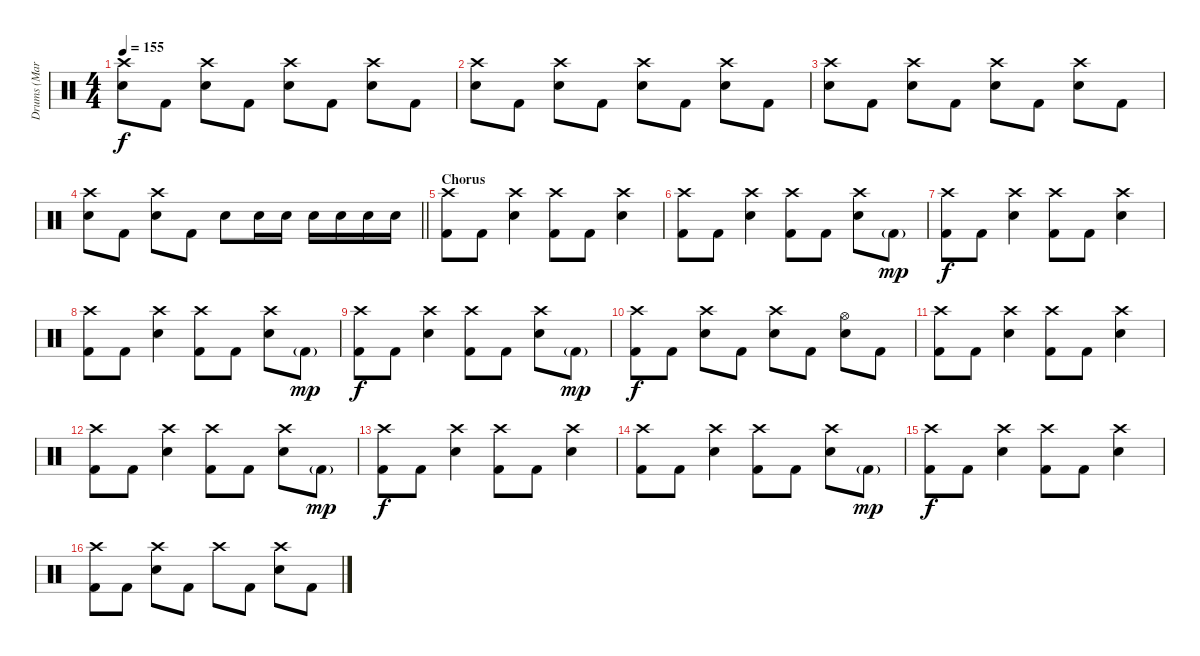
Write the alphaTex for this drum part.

\track ("Drums (Mark)" "Drums (Mar") {instrument percussion}
\staff {score}
\articulation defaults
\ts (4 4)
\tempo 155
\clef neutral
\ks c
("Crash high (hit)" "Snare (hit) 2").8{dy f} "Kick (hit) 2".8 ("Crash high (hit)" "Snare (hit) 2").8 "Kick (hit) 2".8 ("Crash high (hit)" "Snare (hit) 2").8 "Kick (hit) 2".8 ("Crash high (hit)" "Snare (hit) 2").8 "Kick (hit) 2".8 |
("Crash high (hit)" "Snare (hit) 2").8 "Kick (hit) 2".8 ("Crash high (hit)" "Snare (hit) 2").8 "Kick (hit) 2".8 ("Crash high (hit)" "Snare (hit) 2").8 "Kick (hit) 2".8 ("Crash high (hit)" "Snare (hit) 2").8 "Kick (hit) 2".8 |
("Crash high (hit)" "Snare (hit) 2").8 "Kick (hit) 2".8 ("Crash high (hit)" "Snare (hit) 2").8 "Kick (hit) 2".8 ("Crash high (hit)" "Snare (hit) 2").8 "Kick (hit) 2".8 ("Crash high (hit)" "Snare (hit) 2").8 "Kick (hit) 2".8 |
\barLineRight lightlight
("Crash high (hit)" "Snare (hit) 2").8 "Kick (hit) 2".8 ("Crash high (hit)" "Snare (hit) 2").8 "Kick (hit) 2".8 "Snare (hit) 2".8 "Snare (hit) 2".16 "Snare (hit) 2".16 "Snare (hit) 2".16 "Snare (hit) 2".16 "Snare (hit) 2".16 "Snare (hit) 2".16 |
\section ("" "Chorus")
("Crash high (hit)" "Kick (hit) 2").8 "Kick (hit) 2".8 ("Crash high (hit)" "Snare (hit) 2").4 ("Crash high (hit)" "Kick (hit) 2").8 "Kick (hit) 2".8 ("Crash high (hit)" "Snare (hit) 2").4 |
("Crash high (hit)" "Kick (hit) 2").8 "Kick (hit) 2".8 ("Crash high (hit)" "Snare (hit) 2").4 ("Crash high (hit)" "Kick (hit) 2").8 "Kick (hit) 2".8 ("Crash high (hit)" "Snare (hit) 2").8 "Kick (hit) 2"{g}.8{dy mp} |
("Crash high (hit)" "Kick (hit) 2").8{dy f} "Kick (hit) 2".8 ("Crash high (hit)" "Snare (hit) 2").4 ("Crash high (hit)" "Kick (hit) 2").8 "Kick (hit) 2".8 ("Crash high (hit)" "Snare (hit) 2").4 |
("Crash high (hit)" "Kick (hit) 2").8 "Kick (hit) 2".8 ("Crash high (hit)" "Snare (hit) 2").4 ("Crash high (hit)" "Kick (hit) 2").8 "Kick (hit) 2".8 ("Crash high (hit)" "Snare (hit) 2").8 "Kick (hit) 2"{g}.8{dy mp} |
("Crash high (hit)" "Kick (hit) 2").8{dy f} "Kick (hit) 2".8 ("Crash high (hit)" "Snare (hit) 2").4 ("Crash high (hit)" "Kick (hit) 2").8 "Kick (hit) 2".8 ("Crash high (hit)" "Snare (hit) 2").8 "Kick (hit) 2"{g}.8{dy mp} |
("Crash high (hit)" "Kick (hit) 2").8{dy f} "Kick (hit) 2".8 ("Crash high (hit)" "Snare (hit) 2").8 "Kick (hit) 2".8 ("Crash high (hit)" "Snare (hit) 2").8 "Kick (hit) 2".8 ("Hi-Hat (open)" "Snare (hit) 2").8 "Kick (hit) 2".8 |
("Crash high (hit)" "Kick (hit) 2").8 "Kick (hit) 2".8 ("Crash high (hit)" "Snare (hit) 2").4 ("Crash high (hit)" "Kick (hit) 2").8 "Kick (hit) 2".8 ("Crash high (hit)" "Snare (hit) 2").4 |
("Crash high (hit)" "Kick (hit) 2").8 "Kick (hit) 2".8 ("Crash high (hit)" "Snare (hit) 2").4 ("Crash high (hit)" "Kick (hit) 2").8 "Kick (hit) 2".8 ("Crash high (hit)" "Snare (hit) 2").8 "Kick (hit) 2"{g}.8{dy mp} |
("Crash high (hit)" "Kick (hit) 2").8{dy f} "Kick (hit) 2".8 ("Crash high (hit)" "Snare (hit) 2").4 ("Crash high (hit)" "Kick (hit) 2").8 "Kick (hit) 2".8 ("Crash high (hit)" "Snare (hit) 2").4 |
("Crash high (hit)" "Kick (hit) 2").8 "Kick (hit) 2".8 ("Crash high (hit)" "Snare (hit) 2").4 ("Crash high (hit)" "Kick (hit) 2").8 "Kick (hit) 2".8 ("Crash high (hit)" "Snare (hit) 2").8 "Kick (hit) 2"{g}.8{dy mp} |
("Crash high (hit)" "Kick (hit) 2").8{dy f} "Kick (hit) 2".8 ("Crash high (hit)" "Snare (hit) 2").4 ("Crash high (hit)" "Kick (hit) 2").8 "Kick (hit) 2".8 ("Crash high (hit)" "Snare (hit) 2").4 |
("Crash high (hit)" "Kick (hit) 2").8 "Kick (hit) 2".8 ("Crash high (hit)" "Snare (hit) 2").8 "Kick (hit) 2".8 "Crash high (hit)".8 "Kick (hit) 2".8 ("Crash high (hit)" "Snare (hit) 2").8 "Kick (hit) 2".8
